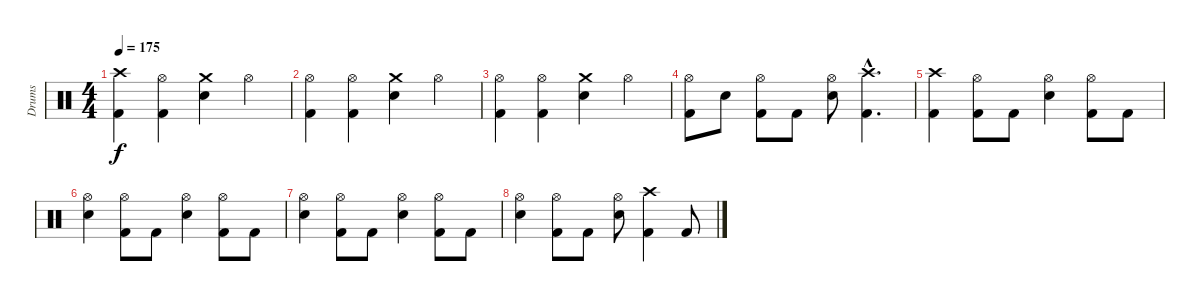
\track ("Drums" "Drums") {instrument percussion}
\staff {score}
\articulation defaults
\ts (4 4)
\tempo 175
\clef neutral
\ks c
("Crash high (hit)" "Kick (hit) 2").4{dy f} ("Hi-Hat (open)" "Kick (hit) 2").4 ("Crash medium (hit)" "Snare (hit) 2").4 "Hi-Hat (open)".4 |
("Hi-Hat (open)" "Kick (hit) 2").4 ("Hi-Hat (open)" "Kick (hit) 2").4 ("Crash medium (hit)" "Snare (hit) 2").4 "Hi-Hat (open)".4 |
("Hi-Hat (open)" "Kick (hit) 2").4 ("Hi-Hat (open)" "Kick (hit) 2").4 ("Crash medium (hit)" "Snare (hit) 2").4 "Hi-Hat (open)".4 |
("Hi-Hat (open)" "Kick (hit) 2").8 "Snare (hit) 2".8 ("Hi-Hat (open)" "Kick (hit) 2").8 "Kick (hit) 2".8 ("Hi-Hat (open)" "Snare (hit) 2").8 ("Crash high (hit)"{hac} "Kick (hit) 2"{hac}).4{d} |
("Crash high (hit)" "Kick (hit) 2").4 ("Hi-Hat (open)" "Kick (hit) 2").8 "Kick (hit) 2".8 ("Hi-Hat (open)" "Snare (hit) 2").4 ("Hi-Hat (open)" "Kick (hit) 2").8 "Kick (hit) 2".8 |
("Hi-Hat (open)" "Snare (hit) 2").4 ("Hi-Hat (open)" "Kick (hit) 2").8 "Kick (hit) 2".8 ("Hi-Hat (open)" "Snare (hit) 2").4 ("Hi-Hat (open)" "Kick (hit) 2").8 "Kick (hit) 2".8 |
("Hi-Hat (open)" "Snare (hit) 2").4 ("Hi-Hat (open)" "Kick (hit) 2").8 "Kick (hit) 2".8 ("Hi-Hat (open)" "Snare (hit) 2").4 ("Hi-Hat (open)" "Kick (hit) 2").8 "Kick (hit) 2".8 |
("Hi-Hat (open)" "Snare (hit) 2").4 ("Hi-Hat (open)" "Kick (hit) 2").8 "Kick (hit) 2".8 ("Hi-Hat (open)" "Snare (hit) 2").8 ("Crash high (hit)" "Kick (hit) 2").4 "Kick (hit) 2".8
